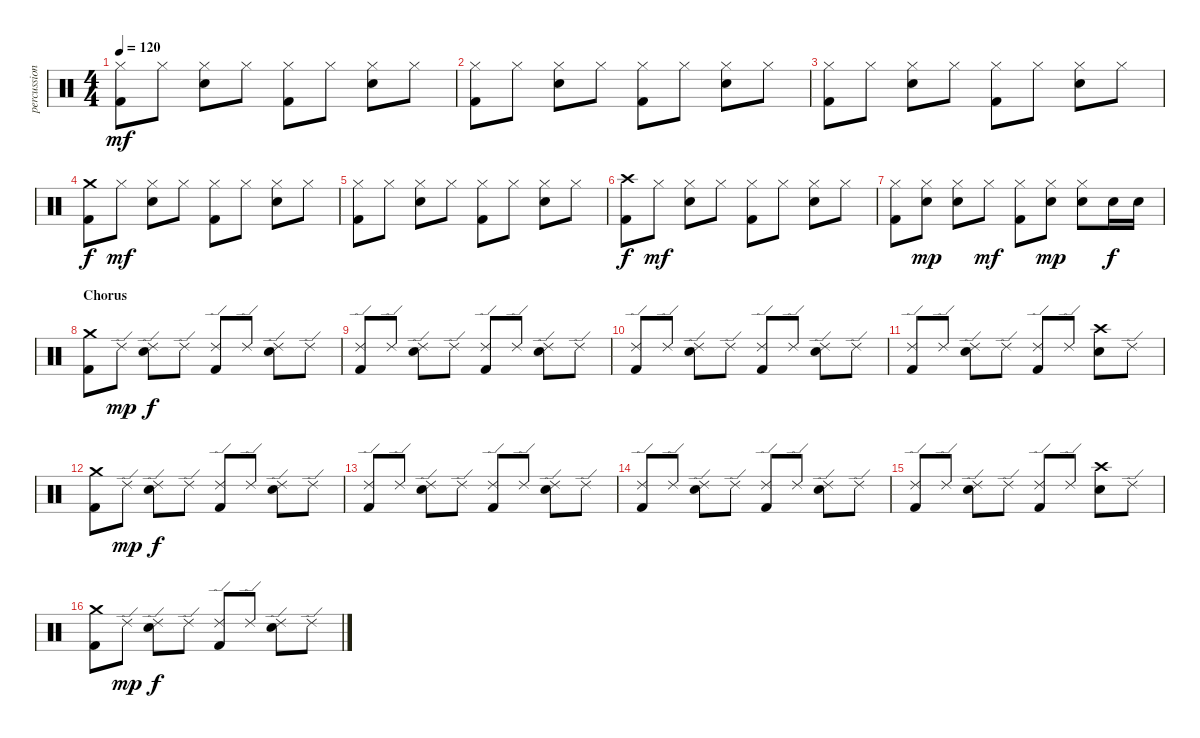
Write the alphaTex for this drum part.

\track ("percussion" "percussion") {instrument percussion}
\staff {score}
\articulation defaults
\ts (4 4)
\tempo 120
\clef neutral
\ks c
("Hi-Hat (closed)" "Kick (hit) 2").8{dy mf} "Hi-Hat (closed)".8 ("Hi-Hat (closed)" "Electric Snare (hit)").8 "Hi-Hat (closed)".8 ("Hi-Hat (closed)" "Kick (hit) 2").8 "Hi-Hat (closed)".8 ("Hi-Hat (closed)" "Electric Snare (hit)").8 "Hi-Hat (closed)".8 |
("Hi-Hat (closed)" "Kick (hit) 2").8 "Hi-Hat (closed)".8 ("Hi-Hat (closed)" "Electric Snare (hit)").8 "Hi-Hat (closed)".8 ("Hi-Hat (closed)" "Kick (hit) 2").8 "Hi-Hat (closed)".8 ("Hi-Hat (closed)" "Electric Snare (hit)").8 "Hi-Hat (closed)".8 |
("Hi-Hat (closed)" "Kick (hit) 2").8 "Hi-Hat (closed)".8 ("Hi-Hat (closed)" "Electric Snare (hit)").8 "Hi-Hat (closed)".8 ("Hi-Hat (closed)" "Kick (hit) 2").8 "Hi-Hat (closed)".8 ("Hi-Hat (closed)" "Electric Snare (hit)").8 "Hi-Hat (closed)".8 |
("Crash medium (hit)" "Kick (hit) 2").8{dy f} "Hi-Hat (closed)".8{dy mf} ("Hi-Hat (closed)" "Electric Snare (hit)").8 "Hi-Hat (closed)".8 ("Hi-Hat (closed)" "Kick (hit) 2").8 "Hi-Hat (closed)".8 ("Hi-Hat (closed)" "Electric Snare (hit)").8 "Hi-Hat (closed)".8 |
("Hi-Hat (closed)" "Kick (hit) 2").8 "Hi-Hat (closed)".8 ("Hi-Hat (closed)" "Electric Snare (hit)").8 "Hi-Hat (closed)".8 ("Hi-Hat (closed)" "Kick (hit) 2").8 "Hi-Hat (closed)".8 ("Hi-Hat (closed)" "Electric Snare (hit)").8 "Hi-Hat (closed)".8 |
("Crash high (hit)" "Kick (hit) 2").8{dy f} "Hi-Hat (closed)".8{dy mf} ("Hi-Hat (closed)" "Electric Snare (hit)").8 "Hi-Hat (closed)".8 ("Hi-Hat (closed)" "Kick (hit) 2").8 "Hi-Hat (closed)".8 ("Hi-Hat (closed)" "Electric Snare (hit)").8 "Hi-Hat (closed)".8 |
("Hi-Hat (closed)" "Kick (hit) 2").8 ("Hi-Hat (closed)" "Electric Snare (hit)").8{dy mp} ("Hi-Hat (closed)" "Electric Snare (hit)").8 "Hi-Hat (closed)".8{dy mf} ("Hi-Hat (closed)" "Kick (hit) 2").8 ("Hi-Hat (closed)" "Electric Snare (hit)").8{dy mp} ("Hi-Hat (closed)" "Electric Snare (hit)").8 "Electric Snare (hit)".16{dy f} "Electric Snare (hit)".16 |
\section ("" "Chorus")
("Crash medium (hit)" "Kick (hit) 2").8 "Ride (edge) 2".8{dy mp} ("Ride (edge) 2" "Electric Snare (hit)").8{dy f} "Ride (edge) 2".8 ("Ride (edge) 2" "Kick (hit) 2").8 "Ride (edge) 2".8 ("Ride (edge) 2" "Electric Snare (hit)").8 "Ride (edge) 2".8 |
("Ride (edge) 2" "Kick (hit) 2").8 "Ride (edge) 2".8 ("Ride (edge) 2" "Electric Snare (hit)").8 "Ride (edge) 2".8 ("Ride (edge) 2" "Kick (hit) 2").8 "Ride (edge) 2".8 ("Ride (edge) 2" "Electric Snare (hit)").8 "Ride (edge) 2".8 |
("Ride (edge) 2" "Kick (hit) 2").8 "Ride (edge) 2".8 ("Ride (edge) 2" "Electric Snare (hit)").8 "Ride (edge) 2".8 ("Ride (edge) 2" "Kick (hit) 2").8 "Ride (edge) 2".8 ("Ride (edge) 2" "Electric Snare (hit)").8 "Ride (edge) 2".8 |
("Ride (edge) 2" "Kick (hit) 2").8 "Ride (edge) 2".8 ("Ride (edge) 2" "Electric Snare (hit)").8 "Ride (edge) 2".8 ("Ride (edge) 2" "Kick (hit) 2").8 "Ride (edge) 2".8 ("Crash high (hit)" "Electric Snare (hit)").8 "Ride (edge) 2".8 |
("Crash medium (hit)" "Kick (hit) 2").8 "Ride (edge) 2".8{dy mp} ("Ride (edge) 2" "Electric Snare (hit)").8{dy f} "Ride (edge) 2".8 ("Ride (edge) 2" "Kick (hit) 2").8 "Ride (edge) 2".8 ("Ride (edge) 2" "Electric Snare (hit)").8 "Ride (edge) 2".8 |
("Ride (edge) 2" "Kick (hit) 2").8 "Ride (edge) 2".8 ("Ride (edge) 2" "Electric Snare (hit)").8 "Ride (edge) 2".8 ("Ride (edge) 2" "Kick (hit) 2").8 "Ride (edge) 2".8 ("Ride (edge) 2" "Electric Snare (hit)").8 "Ride (edge) 2".8 |
("Ride (edge) 2" "Kick (hit) 2").8 "Ride (edge) 2".8 ("Ride (edge) 2" "Electric Snare (hit)").8 "Ride (edge) 2".8 ("Ride (edge) 2" "Kick (hit) 2").8 "Ride (edge) 2".8 ("Ride (edge) 2" "Electric Snare (hit)").8 "Ride (edge) 2".8 |
("Ride (edge) 2" "Kick (hit) 2").8 "Ride (edge) 2".8 ("Ride (edge) 2" "Electric Snare (hit)").8 "Ride (edge) 2".8 ("Ride (edge) 2" "Kick (hit) 2").8 "Ride (edge) 2".8 ("Crash high (hit)" "Electric Snare (hit)").8 "Ride (edge) 2".8 |
("Crash medium (hit)" "Kick (hit) 2").8 "Ride (edge) 2".8{dy mp} ("Ride (edge) 2" "Electric Snare (hit)").8{dy f} "Ride (edge) 2".8 ("Ride (edge) 2" "Kick (hit) 2").8 "Ride (edge) 2".8 ("Ride (edge) 2" "Electric Snare (hit)").8 "Ride (edge) 2".8
